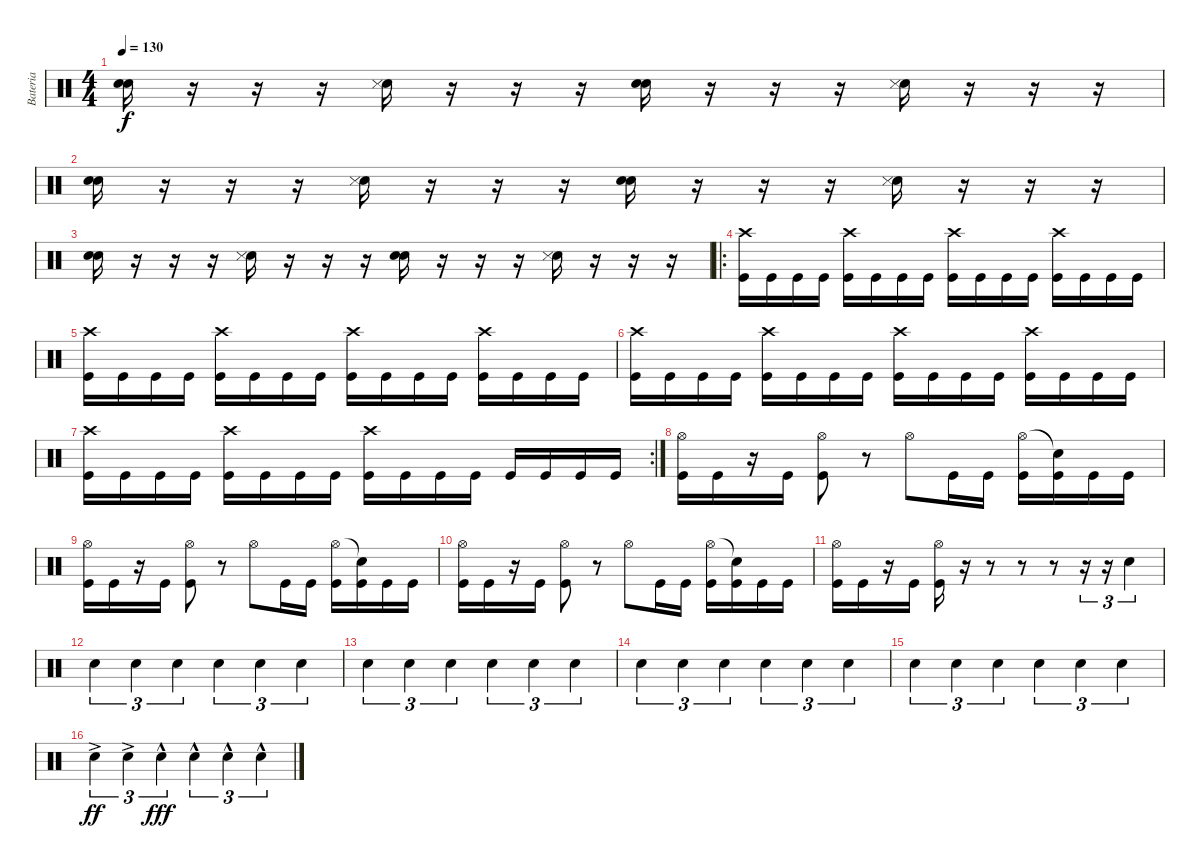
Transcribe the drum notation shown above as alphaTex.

\track ("Bateria" "Bateria") {instrument percussion}
\staff {score}
\articulation defaults
\ts (4 4)
\tempo 130
\clef neutral
\ks c
("Snare (hit) 2" "Snare (hit) 2").16{dy f} r.16 r.16 r.16 ("Snare (hit) 2" "Snare (side stick) 3").16 r.16 r.16 r.16 ("Snare (hit) 2" "Snare (hit) 2").16 r.16 r.16 r.16 ("Snare (hit) 2" "Snare (side stick) 3").16 r.16 r.16 r.16 |
("Snare (hit) 2" "Snare (hit) 2").16 r.16 r.16 r.16 ("Snare (hit) 2" "Snare (side stick) 3").16 r.16 r.16 r.16 ("Snare (hit) 2" "Snare (hit) 2").16 r.16 r.16 r.16 ("Snare (hit) 2" "Snare (side stick) 3").16 r.16 r.16 r.16 |
("Snare (hit) 2" "Snare (hit) 2").16 r.16 r.16 r.16 ("Snare (hit) 2" "Snare (side stick) 3").16 r.16 r.16 r.16 ("Snare (hit) 2" "Snare (hit) 2").16 r.16 r.16 r.16 ("Snare (hit) 2" "Snare (side stick) 3").16 r.16 r.16 r.16 |
\ro
("Crash high (hit)" "Kick (hit)").16 "Kick (hit)".16 "Kick (hit)".16 "Kick (hit)".16 ("Crash high (hit)" "Kick (hit)").16 "Kick (hit)".16 "Kick (hit)".16 "Kick (hit)".16 ("Crash high (hit)" "Kick (hit)").16 "Kick (hit)".16 "Kick (hit)".16 "Kick (hit)".16 ("Crash high (hit)" "Kick (hit)").16 "Kick (hit)".16 "Kick (hit)".16 "Kick (hit)".16 |
("Crash high (hit)" "Kick (hit)").16 "Kick (hit)".16 "Kick (hit)".16 "Kick (hit)".16 ("Crash high (hit)" "Kick (hit)").16 "Kick (hit)".16 "Kick (hit)".16 "Kick (hit)".16 ("Crash high (hit)" "Kick (hit)").16 "Kick (hit)".16 "Kick (hit)".16 "Kick (hit)".16 ("Crash high (hit)" "Kick (hit)").16 "Kick (hit)".16 "Kick (hit)".16 "Kick (hit)".16 |
("Crash high (hit)" "Kick (hit)").16 "Kick (hit)".16 "Kick (hit)".16 "Kick (hit)".16 ("Crash high (hit)" "Kick (hit)").16 "Kick (hit)".16 "Kick (hit)".16 "Kick (hit)".16 ("Crash high (hit)" "Kick (hit)").16 "Kick (hit)".16 "Kick (hit)".16 "Kick (hit)".16 ("Crash high (hit)" "Kick (hit)").16 "Kick (hit)".16 "Kick (hit)".16 "Kick (hit)".16 |
\rc 2
("Crash high (hit)" "Kick (hit)").16 "Kick (hit)".16 "Kick (hit)".16 "Kick (hit)".16 ("Crash high (hit)" "Kick (hit)").16 "Kick (hit)".16 "Kick (hit)".16 "Kick (hit)".16 ("Crash high (hit)" "Kick (hit)").16 "Kick (hit)".16 "Kick (hit)".16 "Kick (hit)".16 "Kick (hit)".16 "Kick (hit)".16 "Kick (hit)".16 "Kick (hit)".16 |
("Hi-Hat (open)" "Kick (hit)").16 "Kick (hit)".16 r.16 "Kick (hit)".16 ("Hi-Hat (open)" "Kick (hit)").8 r.8 "Hi-Hat (open)".8 "Kick (hit)".16 "Kick (hit)".16 ("Hi-Hat (open)" "Kick (hit)").16 ("Snare (hit)"{t} "Kick (hit)").16 "Kick (hit)".16 "Kick (hit)".16 |
("Hi-Hat (open)" "Kick (hit)").16 "Kick (hit)".16 r.16 "Kick (hit)".16 ("Hi-Hat (open)" "Kick (hit)").8 r.8 "Hi-Hat (open)".8 "Kick (hit)".16 "Kick (hit)".16 ("Hi-Hat (open)" "Kick (hit)").16 ("Snare (hit)"{t} "Kick (hit)").16 "Kick (hit)".16 "Kick (hit)".16 |
("Hi-Hat (open)" "Kick (hit)").16 "Kick (hit)".16 r.16 "Kick (hit)".16 ("Hi-Hat (open)" "Kick (hit)").8 r.8 "Hi-Hat (open)".8 "Kick (hit)".16 "Kick (hit)".16 ("Hi-Hat (open)" "Kick (hit)").16 ("Snare (hit)"{t} "Kick (hit)").16 "Kick (hit)".16 "Kick (hit)".16 |
("Hi-Hat (open)" "Kick (hit)").16 "Kick (hit)".16 r.16 "Kick (hit)".16 ("Hi-Hat (open)" "Kick (hit)").16 r.16 r.8 r.8 r.8 r.16{tu (3 2)} r.16{tu (3 2)} "Snare (hit) 2".4{tu (3 2)} |
"Snare (hit) 2".4{tu (3 2)} "Snare (hit) 2".4{tu (3 2)} "Snare (hit) 2".4{tu (3 2)} "Snare (hit) 2".4{tu (3 2)} "Snare (hit) 2".4{tu (3 2)} "Snare (hit) 2".4{tu (3 2)} |
"Snare (hit) 2".4{tu (3 2)} "Snare (hit) 2".4{tu (3 2)} "Snare (hit) 2".4{tu (3 2)} "Snare (hit) 2".4{tu (3 2)} "Snare (hit) 2".4{tu (3 2)} "Snare (hit) 2".4{tu (3 2)} |
"Snare (hit) 2".4{tu (3 2)} "Snare (hit) 2".4{tu (3 2)} "Snare (hit) 2".4{tu (3 2)} "Snare (hit) 2".4{tu (3 2)} "Snare (hit) 2".4{tu (3 2)} "Snare (hit) 2".4{tu (3 2)} |
"Snare (hit) 2".4{tu (3 2)} "Snare (hit) 2".4{tu (3 2)} "Snare (hit) 2".4{tu (3 2)} "Snare (hit) 2".4{tu (3 2)} "Snare (hit) 2".4{tu (3 2)} "Snare (hit) 2".4{tu (3 2)} |
"Snare (hit) 2"{ac}.4{tu (3 2) dy ff} "Snare (hit) 2"{ac}.4{tu (3 2)} "Snare (hit) 2"{hac}.4{tu (3 2) dy fff} "Snare (hit) 2"{hac}.4{tu (3 2)} "Snare (hit) 2"{hac}.4{tu (3 2)} "Snare (hit) 2"{hac}.4{tu (3 2)}
